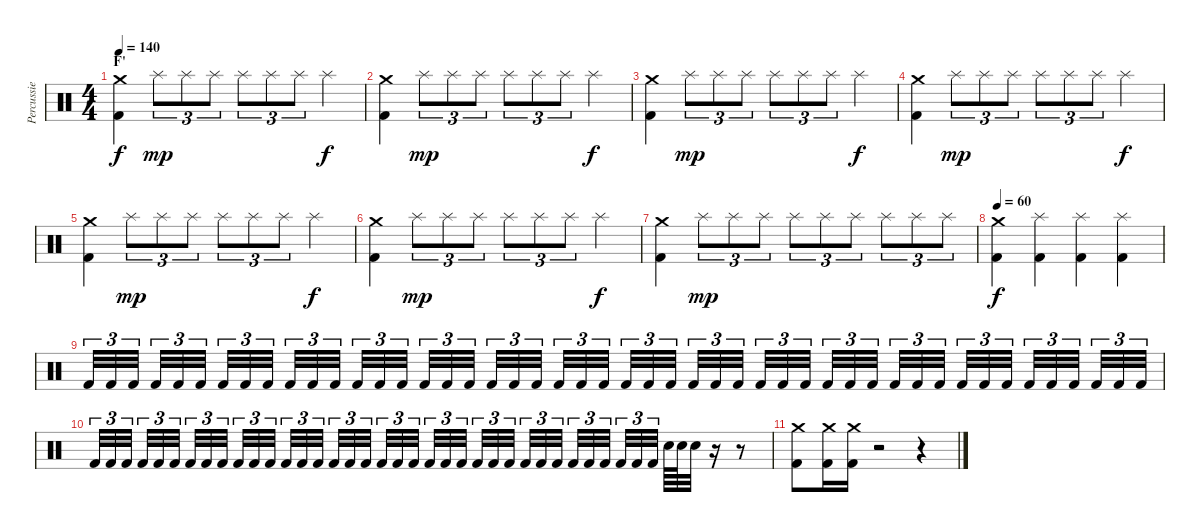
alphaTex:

\track ("Percussie" "Percussie") {instrument percussion}
\staff {score}
\articulation defaults
\ts (4 4)
\section ("" "F'")
\tempo 140
\clef neutral
\ks c
("Crash medium (hit)" "Kick (hit) 2").4{dy f} "Splash (hit)".8{tu (3 2) dy mp} "Splash (hit)".8{tu (3 2)} "Splash (hit)".8{tu (3 2)} "Splash (hit)".8{tu (3 2)} "Splash (hit)".8{tu (3 2)} "Splash (hit)".8{tu (3 2)} "Splash (hit)".4{dy f} |
("Crash medium (hit)" "Kick (hit) 2").4 "Splash (hit)".8{tu (3 2) dy mp} "Splash (hit)".8{tu (3 2)} "Splash (hit)".8{tu (3 2)} "Splash (hit)".8{tu (3 2)} "Splash (hit)".8{tu (3 2)} "Splash (hit)".8{tu (3 2)} "Splash (hit)".4{dy f} |
("Crash medium (hit)" "Kick (hit) 2").4 "Splash (hit)".8{tu (3 2) dy mp} "Splash (hit)".8{tu (3 2)} "Splash (hit)".8{tu (3 2)} "Splash (hit)".8{tu (3 2)} "Splash (hit)".8{tu (3 2)} "Splash (hit)".8{tu (3 2)} "Splash (hit)".4{dy f} |
("Crash medium (hit)" "Kick (hit) 2").4 "Splash (hit)".8{tu (3 2) dy mp} "Splash (hit)".8{tu (3 2)} "Splash (hit)".8{tu (3 2)} "Splash (hit)".8{tu (3 2)} "Splash (hit)".8{tu (3 2)} "Splash (hit)".8{tu (3 2)} "Splash (hit)".4{dy f} |
("Crash medium (hit)" "Kick (hit) 2").4 "Splash (hit)".8{tu (3 2) dy mp} "Splash (hit)".8{tu (3 2)} "Splash (hit)".8{tu (3 2)} "Splash (hit)".8{tu (3 2)} "Splash (hit)".8{tu (3 2)} "Splash (hit)".8{tu (3 2)} "Splash (hit)".4{dy f} |
("Crash medium (hit)" "Kick (hit) 2").4 "Splash (hit)".8{tu (3 2) dy mp} "Splash (hit)".8{tu (3 2)} "Splash (hit)".8{tu (3 2)} "Splash (hit)".8{tu (3 2)} "Splash (hit)".8{tu (3 2)} "Splash (hit)".8{tu (3 2)} "Splash (hit)".4{dy f} |
("Crash medium (hit)" "Kick (hit) 2").4 "Splash (hit)".8{tu (3 2) dy mp} "Splash (hit)".8{tu (3 2)} "Splash (hit)".8{tu (3 2)} "Splash (hit)".8{tu (3 2)} "Splash (hit)".8{tu (3 2)} "Splash (hit)".8{tu (3 2)} "Splash (hit)".8{tu (3 2)} "Splash (hit)".8{tu (3 2)} "Splash (hit)".8{tu (3 2)} |
\tempo 60
("Crash medium (hit)" "Kick (hit) 2").4{dy f} ("Splash (hit)" "Kick (hit) 2").4 ("Splash (hit)" "Kick (hit) 2").4 ("Splash (hit)" "Kick (hit) 2").4 |
"Kick (hit) 2".32{tu (3 2)} "Kick (hit) 2".32{tu (3 2)} "Kick (hit) 2".32{tu (3 2)} "Kick (hit) 2".32{tu (3 2)} "Kick (hit) 2".32{tu (3 2)} "Kick (hit) 2".32{tu (3 2)} "Kick (hit) 2".32{tu (3 2)} "Kick (hit) 2".32{tu (3 2)} "Kick (hit) 2".32{tu (3 2)} "Kick (hit) 2".32{tu (3 2)} "Kick (hit) 2".32{tu (3 2)} "Kick (hit) 2".32{tu (3 2)} "Kick (hit) 2".32{tu (3 2)} "Kick (hit) 2".32{tu (3 2)} "Kick (hit) 2".32{tu (3 2)} "Kick (hit) 2".32{tu (3 2)} "Kick (hit) 2".32{tu (3 2)} "Kick (hit) 2".32{tu (3 2)} "Kick (hit) 2".32{tu (3 2)} "Kick (hit) 2".32{tu (3 2)} "Kick (hit) 2".32{tu (3 2)} "Kick (hit) 2".32{tu (3 2)} "Kick (hit) 2".32{tu (3 2)} "Kick (hit) 2".32{tu (3 2)} "Kick (hit) 2".32{tu (3 2)} "Kick (hit) 2".32{tu (3 2)} "Kick (hit) 2".32{tu (3 2)} "Kick (hit) 2".32{tu (3 2)} "Kick (hit) 2".32{tu (3 2)} "Kick (hit) 2".32{tu (3 2)} "Kick (hit) 2".32{tu (3 2)} "Kick (hit) 2".32{tu (3 2)} "Kick (hit) 2".32{tu (3 2)} "Kick (hit) 2".32{tu (3 2)} "Kick (hit) 2".32{tu (3 2)} "Kick (hit) 2".32{tu (3 2)} "Kick (hit) 2".32{tu (3 2)} "Kick (hit) 2".32{tu (3 2)} "Kick (hit) 2".32{tu (3 2)} "Kick (hit) 2".32{tu (3 2)} "Kick (hit) 2".32{tu (3 2)} "Kick (hit) 2".32{tu (3 2)} "Kick (hit) 2".32{tu (3 2)} "Kick (hit) 2".32{tu (3 2)} "Kick (hit) 2".32{tu (3 2)} "Kick (hit) 2".32{tu (3 2)} "Kick (hit) 2".32{tu (3 2)} "Kick (hit) 2".32{tu (3 2)} |
"Kick (hit) 2".32{tu (3 2)} "Kick (hit) 2".32{tu (3 2)} "Kick (hit) 2".32{tu (3 2)} "Kick (hit) 2".32{tu (3 2)} "Kick (hit) 2".32{tu (3 2)} "Kick (hit) 2".32{tu (3 2)} "Kick (hit) 2".32{tu (3 2)} "Kick (hit) 2".32{tu (3 2)} "Kick (hit) 2".32{tu (3 2)} "Kick (hit) 2".32{tu (3 2)} "Kick (hit) 2".32{tu (3 2)} "Kick (hit) 2".32{tu (3 2)} "Kick (hit) 2".32{tu (3 2)} "Kick (hit) 2".32{tu (3 2)} "Kick (hit) 2".32{tu (3 2)} "Kick (hit) 2".32{tu (3 2)} "Kick (hit) 2".32{tu (3 2)} "Kick (hit) 2".32{tu (3 2)} "Kick (hit) 2".32{tu (3 2)} "Kick (hit) 2".32{tu (3 2)} "Kick (hit) 2".32{tu (3 2)} "Kick (hit) 2".32{tu (3 2)} "Kick (hit) 2".32{tu (3 2)} "Kick (hit) 2".32{tu (3 2)} "Kick (hit) 2".32{tu (3 2)} "Kick (hit) 2".32{tu (3 2)} "Kick (hit) 2".32{tu (3 2)} "Kick (hit) 2".32{tu (3 2)} "Kick (hit) 2".32{tu (3 2)} "Kick (hit) 2".32{tu (3 2)} "Kick (hit) 2".32{tu (3 2)} "Kick (hit) 2".32{tu (3 2)} "Kick (hit) 2".32{tu (3 2)} "Kick (hit) 2".32{tu (3 2)} "Kick (hit) 2".32{tu (3 2)} "Kick (hit) 2".32{tu (3 2)} "Electric Snare (hit)".64 "Electric Snare (hit)".64 "Electric Snare (hit)".32 r.16 r.8 |
("Crash medium (hit)" "Kick (hit) 2").8 ("Crash medium (hit)" "Kick (hit) 2").16 ("Crash medium (hit)" "Kick (hit) 2").16 r.2 r.4
